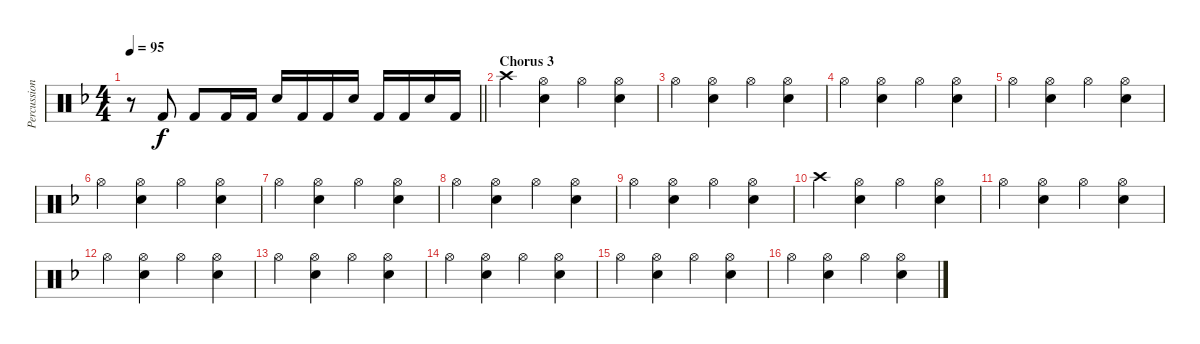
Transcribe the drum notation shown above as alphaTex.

\track ("Percussions (Scott Travis)" "Percussion") {instrument percussion}
\staff {score}
\articulation defaults
\ts (4 4)
\tempo 95
\clef neutral
\barLineRight lightlight
\ks dminor
r.8{dy f} "Kick (hit) 2".8 "Kick (hit) 2".8 "Kick (hit) 2".16 "Kick (hit) 2".16 "Snare (hit) 2".16 "Kick (hit) 2".16 "Kick (hit) 2".16 "Snare (hit) 2".16 "Kick (hit) 2".16 "Kick (hit) 2".16 "Snare (hit) 2".16 "Kick (hit) 2".16 |
\section ("" "Chorus 3")
"Crash high (hit)".4 ("Hi-Hat (open)" "Snare (hit) 2").4 "Hi-Hat (open)".4 ("Hi-Hat (open)" "Snare (hit) 2").4 |
"Hi-Hat (open)".4 ("Hi-Hat (open)" "Snare (hit) 2").4 "Hi-Hat (open)".4 ("Hi-Hat (open)" "Snare (hit) 2").4 |
"Hi-Hat (open)".4 ("Hi-Hat (open)" "Snare (hit) 2").4 "Hi-Hat (open)".4 ("Hi-Hat (open)" "Snare (hit) 2").4 |
"Hi-Hat (open)".4 ("Hi-Hat (open)" "Snare (hit) 2").4 "Hi-Hat (open)".4 ("Hi-Hat (open)" "Snare (hit) 2").4 |
"Hi-Hat (open)".4 ("Hi-Hat (open)" "Snare (hit) 2").4 "Hi-Hat (open)".4 ("Hi-Hat (open)" "Snare (hit) 2").4 |
"Hi-Hat (open)".4 ("Hi-Hat (open)" "Snare (hit) 2").4 "Hi-Hat (open)".4 ("Hi-Hat (open)" "Snare (hit) 2").4 |
"Hi-Hat (open)".4 ("Hi-Hat (open)" "Snare (hit) 2").4 "Hi-Hat (open)".4 ("Hi-Hat (open)" "Snare (hit) 2").4 |
"Hi-Hat (open)".4 ("Hi-Hat (open)" "Snare (hit) 2").4 "Hi-Hat (open)".4 ("Hi-Hat (open)" "Snare (hit) 2").4 |
"Crash high (hit)".4 ("Hi-Hat (open)" "Snare (hit) 2").4 "Hi-Hat (open)".4 ("Hi-Hat (open)" "Snare (hit) 2").4 |
"Hi-Hat (open)".4 ("Hi-Hat (open)" "Snare (hit) 2").4 "Hi-Hat (open)".4 ("Hi-Hat (open)" "Snare (hit) 2").4 |
"Hi-Hat (open)".4 ("Hi-Hat (open)" "Snare (hit) 2").4 "Hi-Hat (open)".4 ("Hi-Hat (open)" "Snare (hit) 2").4 |
"Hi-Hat (open)".4 ("Hi-Hat (open)" "Snare (hit) 2").4 "Hi-Hat (open)".4 ("Hi-Hat (open)" "Snare (hit) 2").4 |
"Hi-Hat (open)".4 ("Hi-Hat (open)" "Snare (hit) 2").4 "Hi-Hat (open)".4 ("Hi-Hat (open)" "Snare (hit) 2").4 |
"Hi-Hat (open)".4 ("Hi-Hat (open)" "Snare (hit) 2").4 "Hi-Hat (open)".4 ("Hi-Hat (open)" "Snare (hit) 2").4 |
"Hi-Hat (open)".4 ("Hi-Hat (open)" "Snare (hit) 2").4 "Hi-Hat (open)".4 ("Hi-Hat (open)" "Snare (hit) 2").4
